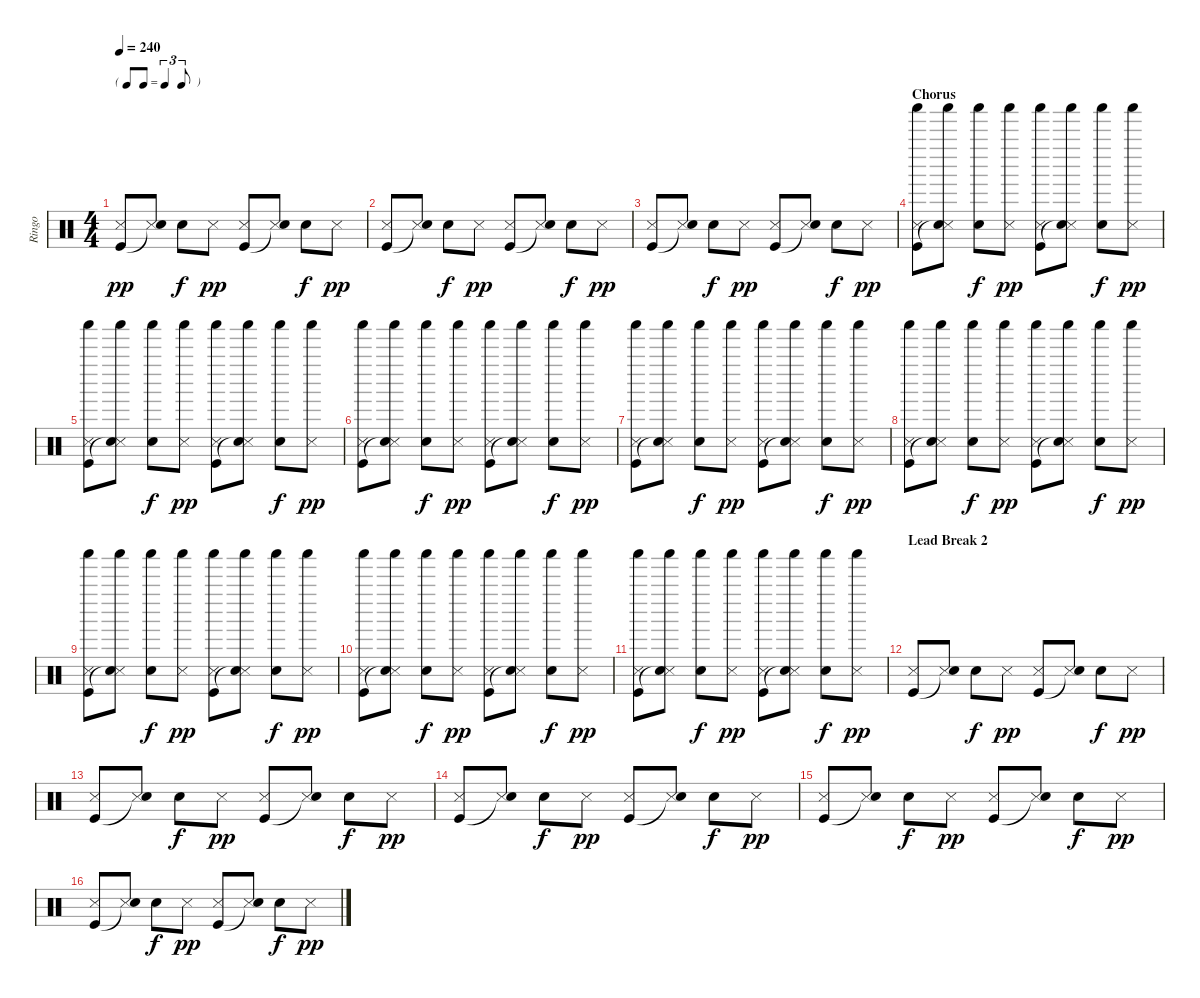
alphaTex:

\track ("Ringo" "Ringo") {instrument percussion}
\staff {score}
\articulation defaults
\ts (4 4)
\tf triplet8th
\tempo 240
\clef neutral
\ks c
("Snare (side stick) 3" "Kick (hit)").8{dy pp} ("Snare (side stick) 3" "Snare (hit)"{t}).8 "Snare (hit) 2".8{dy f} "Snare (side stick) 3".8{dy pp} ("Snare (side stick) 3" "Kick (hit)").8 ("Snare (side stick) 3" "Snare (hit)"{t}).8 "Snare (hit) 2".8{dy f} "Snare (side stick) 3".8{dy pp} |
("Snare (side stick) 3" "Kick (hit)").8 ("Snare (side stick) 3" "Snare (hit)"{t}).8 "Snare (hit) 2".8{dy f} "Snare (side stick) 3".8{dy pp} ("Snare (side stick) 3" "Kick (hit)").8 ("Snare (side stick) 3" "Snare (hit)"{t}).8 "Snare (hit) 2".8{dy f} "Snare (side stick) 3".8{dy pp} |
("Snare (side stick) 3" "Kick (hit)").8 ("Snare (side stick) 3" "Snare (hit)"{t}).8 "Snare (hit) 2".8{dy f} "Snare (side stick) 3".8{dy pp} ("Snare (side stick) 3" "Kick (hit)").8 ("Snare (side stick) 3" "Snare (hit)"{t}).8 "Snare (hit) 2".8{dy f} "Snare (side stick) 3".8{dy pp} |
\section ("" "Chorus ")
("Shaker (hit)" "Snare (side stick) 3" "Kick (hit)").8 ("Shaker (hit)" "Snare (side stick) 3" "Snare (hit)"{t}).8 ("Shaker (hit)" "Snare (hit) 2").8{dy f} ("Shaker (hit)" "Snare (side stick) 3").8{dy pp} ("Shaker (hit)" "Snare (side stick) 3" "Kick (hit)").8 ("Shaker (hit)" "Snare (side stick) 3" "Snare (hit)"{t}).8 ("Shaker (hit)" "Snare (hit) 2").8{dy f} ("Shaker (hit)" "Snare (side stick) 3").8{dy pp} |
("Shaker (hit)" "Snare (side stick) 3" "Kick (hit)").8 ("Shaker (hit)" "Snare (side stick) 3" "Snare (hit)"{t}).8 ("Shaker (hit)" "Snare (hit) 2").8{dy f} ("Shaker (hit)" "Snare (side stick) 3").8{dy pp} ("Shaker (hit)" "Snare (side stick) 3" "Kick (hit)").8 ("Shaker (hit)" "Snare (side stick) 3" "Snare (hit)"{t}).8 ("Shaker (hit)" "Snare (hit) 2").8{dy f} ("Shaker (hit)" "Snare (side stick) 3").8{dy pp} |
("Shaker (hit)" "Snare (side stick) 3" "Kick (hit)").8 ("Shaker (hit)" "Snare (side stick) 3" "Snare (hit)"{t}).8 ("Shaker (hit)" "Snare (hit) 2").8{dy f} ("Shaker (hit)" "Snare (side stick) 3").8{dy pp} ("Shaker (hit)" "Snare (side stick) 3" "Kick (hit)").8 ("Shaker (hit)" "Snare (side stick) 3" "Snare (hit)"{t}).8 ("Shaker (hit)" "Snare (hit) 2").8{dy f} ("Shaker (hit)" "Snare (side stick) 3").8{dy pp} |
("Shaker (hit)" "Snare (side stick) 3" "Kick (hit)").8 ("Shaker (hit)" "Snare (side stick) 3" "Snare (hit)"{t}).8 ("Shaker (hit)" "Snare (hit) 2").8{dy f} ("Shaker (hit)" "Snare (side stick) 3").8{dy pp} ("Shaker (hit)" "Snare (side stick) 3" "Kick (hit)").8 ("Shaker (hit)" "Snare (side stick) 3" "Snare (hit)"{t}).8 ("Shaker (hit)" "Snare (hit) 2").8{dy f} ("Shaker (hit)" "Snare (side stick) 3").8{dy pp} |
("Shaker (hit)" "Snare (side stick) 3" "Kick (hit)").8 ("Shaker (hit)" "Snare (side stick) 3" "Snare (hit)"{t}).8 ("Shaker (hit)" "Snare (hit) 2").8{dy f} ("Shaker (hit)" "Snare (side stick) 3").8{dy pp} ("Shaker (hit)" "Snare (side stick) 3" "Kick (hit)").8 ("Shaker (hit)" "Snare (side stick) 3" "Snare (hit)"{t}).8 ("Shaker (hit)" "Snare (hit) 2").8{dy f} ("Shaker (hit)" "Snare (side stick) 3").8{dy pp} |
("Shaker (hit)" "Snare (side stick) 3" "Kick (hit)").8 ("Shaker (hit)" "Snare (side stick) 3" "Snare (hit)"{t}).8 ("Shaker (hit)" "Snare (hit) 2").8{dy f} ("Shaker (hit)" "Snare (side stick) 3").8{dy pp} ("Shaker (hit)" "Snare (side stick) 3" "Kick (hit)").8 ("Shaker (hit)" "Snare (side stick) 3" "Snare (hit)"{t}).8 ("Shaker (hit)" "Snare (hit) 2").8{dy f} ("Shaker (hit)" "Snare (side stick) 3").8{dy pp} |
("Shaker (hit)" "Snare (side stick) 3" "Kick (hit)").8 ("Shaker (hit)" "Snare (side stick) 3" "Snare (hit)"{t}).8 ("Shaker (hit)" "Snare (hit) 2").8{dy f} ("Shaker (hit)" "Snare (side stick) 3").8{dy pp} ("Shaker (hit)" "Snare (side stick) 3" "Kick (hit)").8 ("Shaker (hit)" "Snare (side stick) 3" "Snare (hit)"{t}).8 ("Shaker (hit)" "Snare (hit) 2").8{dy f} ("Shaker (hit)" "Snare (side stick) 3").8{dy pp} |
("Shaker (hit)" "Snare (side stick) 3" "Kick (hit)").8 ("Shaker (hit)" "Snare (side stick) 3" "Snare (hit)"{t}).8 ("Shaker (hit)" "Snare (hit) 2").8{dy f} ("Shaker (hit)" "Snare (side stick) 3").8{dy pp} ("Shaker (hit)" "Snare (side stick) 3" "Kick (hit)").8 ("Shaker (hit)" "Snare (side stick) 3" "Snare (hit)"{t}).8 ("Shaker (hit)" "Snare (hit) 2").8{dy f} ("Shaker (hit)" "Snare (side stick) 3").8{dy pp} |
\section ("" "Lead Break 2")
("Snare (side stick) 3" "Kick (hit)").8 ("Snare (side stick) 3" "Snare (hit)"{t}).8 "Snare (hit) 2".8{dy f} "Snare (side stick) 3".8{dy pp} ("Snare (side stick) 3" "Kick (hit)").8 ("Snare (side stick) 3" "Snare (hit)"{t}).8 "Snare (hit) 2".8{dy f} "Snare (side stick) 3".8{dy pp} |
("Snare (side stick) 3" "Kick (hit)").8 ("Snare (side stick) 3" "Snare (hit)"{t}).8 "Snare (hit) 2".8{dy f} "Snare (side stick) 3".8{dy pp} ("Snare (side stick) 3" "Kick (hit)").8 ("Snare (side stick) 3" "Snare (hit)"{t}).8 "Snare (hit) 2".8{dy f} "Snare (side stick) 3".8{dy pp} |
("Snare (side stick) 3" "Kick (hit)").8 ("Snare (side stick) 3" "Snare (hit)"{t}).8 "Snare (hit) 2".8{dy f} "Snare (side stick) 3".8{dy pp} ("Snare (side stick) 3" "Kick (hit)").8 ("Snare (side stick) 3" "Snare (hit)"{t}).8 "Snare (hit) 2".8{dy f} "Snare (side stick) 3".8{dy pp} |
("Snare (side stick) 3" "Kick (hit)").8 ("Snare (side stick) 3" "Snare (hit)"{t}).8 "Snare (hit) 2".8{dy f} "Snare (side stick) 3".8{dy pp} ("Snare (side stick) 3" "Kick (hit)").8 ("Snare (side stick) 3" "Snare (hit)"{t}).8 "Snare (hit) 2".8{dy f} "Snare (side stick) 3".8{dy pp} |
("Snare (side stick) 3" "Kick (hit)").8 ("Snare (side stick) 3" "Snare (hit)"{t}).8 "Snare (hit) 2".8{dy f} "Snare (side stick) 3".8{dy pp} ("Snare (side stick) 3" "Kick (hit)").8 ("Snare (side stick) 3" "Snare (hit)"{t}).8 "Snare (hit) 2".8{dy f} "Snare (side stick) 3".8{dy pp}
